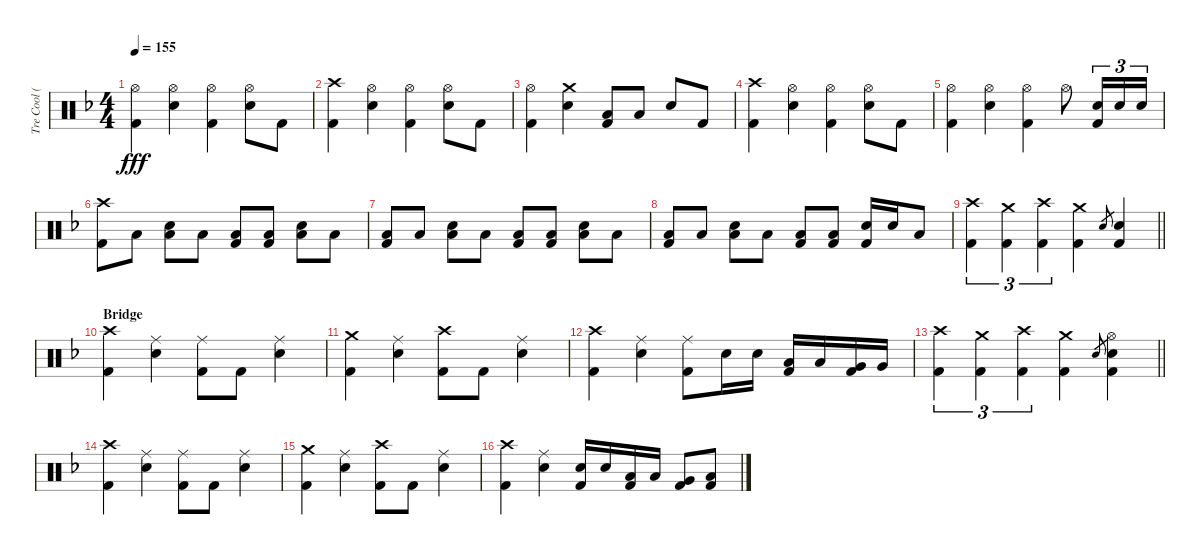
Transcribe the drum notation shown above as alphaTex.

\track ("Tre Cool (Drums)" "Tre Cool (") {instrument percussion}
\staff {score}
\articulation defaults
\ts (4 4)
\tempo 155
\clef neutral
\ks f
("Hi-Hat (open)" "Kick (hit) 2").4{dy fff} ("Hi-Hat (open)" "Electric Snare (hit)").4 ("Hi-Hat (open)" "Kick (hit) 2").4 ("Hi-Hat (open)" "Electric Snare (hit)").8 "Kick (hit) 2".8 |
("Crash high (hit)" "Kick (hit) 2").4 ("Hi-Hat (open)" "Electric Snare (hit)").4 ("Hi-Hat (open)" "Kick (hit) 2").4 ("Hi-Hat (open)" "Electric Snare (hit)").8 "Kick (hit) 2".8 |
("Hi-Hat (open)" "Kick (hit) 2").4 ("Crash medium (hit)" "Electric Snare (hit)").4 ("Low Tom (hit)" "Kick (hit) 2").8 "Low Floor Tom (hit)".8 "Electric Snare (hit)".8 "Kick (hit) 2".8 |
("Crash high (hit)" "Kick (hit) 2").4 ("Hi-Hat (open)" "Electric Snare (hit)").4 ("Hi-Hat (open)" "Kick (hit) 2").4 ("Hi-Hat (open)" "Electric Snare (hit)").8 "Kick (hit) 2".8 |
("Hi-Hat (open)" "Kick (hit) 2").4 ("Hi-Hat (open)" "Electric Snare (hit)").4 ("Hi-Hat (open)" "Kick (hit) 2").4 "Hi-Hat (open)".8 ("Kick (hit) 2" "Electric Snare (hit)").16{tu (3 2)} "Electric Snare (hit)".16{tu (3 2)} "Electric Snare (hit)".16{tu (3 2)} |
("Crash high (hit)" "Kick (hit) 2").8 "Low Floor Tom (hit)".8 ("Low Floor Tom (hit)" "Electric Snare (hit)").8 "Low Floor Tom (hit)".8 ("Low Floor Tom (hit)" "Kick (hit) 2").8 ("Low Floor Tom (hit)" "Kick (hit) 2").8 ("Low Floor Tom (hit)" "Electric Snare (hit)").8 "Low Floor Tom (hit)".8 |
("Low Floor Tom (hit)" "Kick (hit) 2").8 "Low Floor Tom (hit)".8 ("Low Floor Tom (hit)" "Electric Snare (hit)").8 "Low Floor Tom (hit)".8 ("Low Floor Tom (hit)" "Kick (hit) 2").8 ("Low Floor Tom (hit)" "Kick (hit) 2").8 ("Low Floor Tom (hit)" "Electric Snare (hit)").8 "Low Floor Tom (hit)".8 |
("Low Floor Tom (hit)" "Kick (hit) 2").8 "Low Floor Tom (hit)".8 ("Low Floor Tom (hit)" "Electric Snare (hit)").8 "Low Floor Tom (hit)".8 ("Low Floor Tom (hit)" "Kick (hit) 2").8 ("Low Floor Tom (hit)" "Kick (hit) 2").8 ("Kick (hit) 2" "Electric Snare (hit)").16 "Electric Snare (hit)".16 "Low Floor Tom (hit)".8 |
\barLineRight lightlight
("Crash high (hit)" "Kick (hit) 2").4{tu (3 2)} ("Crash medium (hit)" "Kick (hit) 2").4{tu (3 2)} ("Crash high (hit)" "Kick (hit) 2").4{tu (3 2)} ("Crash medium (hit)" "Kick (hit) 2").4 "Electric Snare (hit)".8{gr} ("Electric Snare (hit)" "Kick (hit) 2").4 |
\section ("" "Bridge")
("Crash high (hit)" "Kick (hit) 2").4 ("Ride (middle)" "Electric Snare (hit)").4 ("Ride (middle)" "Kick (hit) 2").8 "Kick (hit) 2".8 ("Ride (middle)" "Electric Snare (hit)").4 |
("Crash medium (hit)" "Kick (hit) 2").4 ("Ride (middle)" "Electric Snare (hit)").4 ("Crash high (hit)" "Kick (hit) 2").8 "Kick (hit) 2".8 ("Ride (middle)" "Electric Snare (hit)").4 |
("Crash high (hit)" "Kick (hit) 2").4 ("Ride (middle)" "Electric Snare (hit)").4 ("Ride (middle)" "Kick (hit) 2").8 "Electric Snare (hit)".16 "Electric Snare (hit)".16 ("Low Tom (hit)" "Kick (hit) 2").16 "Low Tom (hit)".16 ("Very Low Tom (hit)" "Kick (hit) 2").16 "Very Low Tom (hit)".16 |
\barLineRight lightlight
("Crash high (hit)" "Kick (hit) 2").4{tu (3 2)} ("Crash medium (hit)" "Kick (hit) 2").4{tu (3 2)} ("Crash high (hit)" "Kick (hit) 2").4{tu (3 2)} ("Crash medium (hit)" "Kick (hit) 2").4 "Electric Snare (hit)".8{gr} ("Hi-Hat (open)" "Electric Snare (hit)" "Kick (hit) 2").4 |
("Crash high (hit)" "Kick (hit) 2").4 ("Ride (middle)" "Electric Snare (hit)").4 ("Ride (middle)" "Kick (hit) 2").8 "Kick (hit) 2".8 ("Ride (middle)" "Electric Snare (hit)").4 |
("Crash medium (hit)" "Kick (hit) 2").4 ("Ride (middle)" "Electric Snare (hit)").4 ("Crash high (hit)" "Kick (hit) 2").8 "Kick (hit) 2".8 ("Ride (middle)" "Electric Snare (hit)").4 |
("Crash high (hit)" "Kick (hit) 2").4 ("Ride (middle)" "Electric Snare (hit)").4 ("Electric Snare (hit)" "Kick (hit) 2").16 "Electric Snare (hit)".16 ("Low Tom (hit)" "Kick (hit) 2").16 "Low Tom (hit)".16 ("Very Low Tom (hit)" "Kick (hit) 2").8 ("Low Floor Tom (hit)" "Kick (hit) 2").8
